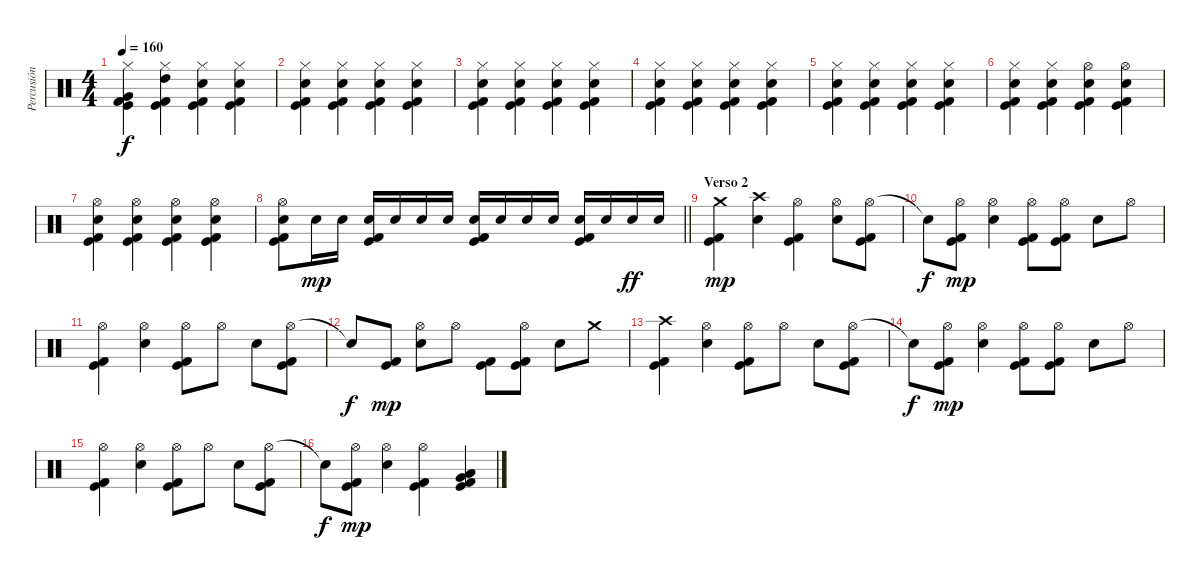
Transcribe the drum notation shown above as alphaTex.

\track ("Percusión" "Percusión") {instrument percussion}
\staff {score}
\articulation defaults
\ts (4 4)
\tempo 160
\clef neutral
\ks c
("Hi-Hat (closed)" "Very Low Tom (hit)" "Kick (hit)" "Kick (hit) 2").4{dy f} ("Hi-Hat (closed)" "High Tom (hit)" "Kick (hit)" "Kick (hit) 2").4 ("Hi-Hat (closed)" "Electric Snare (hit)" "Kick (hit)" "Kick (hit) 2").4 ("Hi-Hat (closed)" "Electric Snare (hit)" "Kick (hit)" "Kick (hit) 2").4 |
("Hi-Hat (closed)" "Electric Snare (hit)" "Kick (hit)" "Kick (hit) 2").4 ("Hi-Hat (closed)" "Electric Snare (hit)" "Kick (hit)" "Kick (hit) 2").4 ("Hi-Hat (closed)" "Electric Snare (hit)" "Kick (hit)" "Kick (hit) 2").4 ("Hi-Hat (closed)" "Electric Snare (hit)" "Kick (hit)" "Kick (hit) 2").4 |
("Hi-Hat (closed)" "Electric Snare (hit)" "Kick (hit)" "Kick (hit) 2").4 ("Hi-Hat (closed)" "Electric Snare (hit)" "Kick (hit)" "Kick (hit) 2").4 ("Hi-Hat (closed)" "Electric Snare (hit)" "Kick (hit)" "Kick (hit) 2").4 ("Hi-Hat (closed)" "Electric Snare (hit)" "Kick (hit)" "Kick (hit) 2").4 |
("Hi-Hat (closed)" "Electric Snare (hit)" "Kick (hit)" "Kick (hit) 2").4 ("Hi-Hat (closed)" "Electric Snare (hit)" "Kick (hit)" "Kick (hit) 2").4 ("Hi-Hat (closed)" "Electric Snare (hit)" "Kick (hit)" "Kick (hit) 2").4 ("Hi-Hat (closed)" "Electric Snare (hit)" "Kick (hit)" "Kick (hit) 2").4 |
("Hi-Hat (closed)" "Electric Snare (hit)" "Kick (hit)" "Kick (hit) 2").4 ("Hi-Hat (closed)" "Electric Snare (hit)" "Kick (hit)" "Kick (hit) 2").4 ("Hi-Hat (closed)" "Electric Snare (hit)" "Kick (hit)" "Kick (hit) 2").4 ("Hi-Hat (closed)" "Electric Snare (hit)" "Kick (hit)" "Kick (hit) 2").4 |
("Hi-Hat (closed)" "Electric Snare (hit)" "Kick (hit)" "Kick (hit) 2").4 ("Hi-Hat (closed)" "Electric Snare (hit)" "Kick (hit)" "Kick (hit) 2").4 ("Hi-Hat (open)" "Electric Snare (hit)" "Kick (hit)" "Kick (hit) 2").4 ("Hi-Hat (open)" "Electric Snare (hit)" "Kick (hit)" "Kick (hit) 2").4 |
("Hi-Hat (open)" "Electric Snare (hit)" "Kick (hit)" "Kick (hit) 2").4 ("Hi-Hat (open)" "Electric Snare (hit)" "Kick (hit)" "Kick (hit) 2").4 ("Hi-Hat (open)" "Electric Snare (hit)" "Kick (hit)" "Kick (hit) 2").4 ("Hi-Hat (open)" "Electric Snare (hit)" "Kick (hit)" "Kick (hit) 2").4 |
\barLineRight lightlight
("Hi-Hat (open)" "Electric Snare (hit)" "Kick (hit)" "Kick (hit) 2").8 "Electric Snare (hit)".16{dy mp} "Electric Snare (hit)".16 ("Electric Snare (hit)" "Kick (hit)" "Kick (hit) 2").16 "Electric Snare (hit)".16 "Electric Snare (hit)".16 "Electric Snare (hit)".16 ("Electric Snare (hit)" "Kick (hit)" "Kick (hit) 2").16 "Electric Snare (hit)".16 "Electric Snare (hit)".16 "Electric Snare (hit)".16 ("Electric Snare (hit)" "Kick (hit)" "Kick (hit) 2").16 "Electric Snare (hit)".16 "Electric Snare (hit)".16{dy ff} "Electric Snare (hit)".16 |
\section ("" "Verso 2")
("Crash medium (hit)" "Kick (hit)" "Kick (hit) 2").4{dy mp} ("Crash high (hit)" "Electric Snare (hit)").4 ("Hi-Hat (open)" "Kick (hit)" "Kick (hit) 2").4 ("Hi-Hat (open)" "Electric Snare (hit)").8 ("Hi-Hat (open)" "Kick (hit)" "Kick (hit) 2").8 |
"Snare (hit)"{t}.8{dy f} ("Hi-Hat (open)" "Kick (hit)" "Kick (hit) 2").8{dy mp} ("Hi-Hat (open)" "Electric Snare (hit)").4 ("Hi-Hat (open)" "Kick (hit)" "Kick (hit) 2").8 ("Hi-Hat (open)" "Kick (hit)" "Kick (hit) 2").8 "Electric Snare (hit)".8 "Hi-Hat (open)".8 |
("Hi-Hat (open)" "Kick (hit)" "Kick (hit) 2").4 ("Hi-Hat (open)" "Electric Snare (hit)").4 ("Hi-Hat (open)" "Kick (hit)" "Kick (hit) 2").8 "Hi-Hat (open)".8 "Electric Snare (hit)".8 ("Hi-Hat (open)" "Kick (hit)" "Kick (hit) 2").8 |
"Snare (hit)"{t}.8{dy f} ("Kick (hit)" "Kick (hit) 2").8{dy mp} ("Hi-Hat (open)" "Electric Snare (hit)").8 "Hi-Hat (open)".8 ("Kick (hit)" "Kick (hit) 2").8 ("Hi-Hat (open)" "Kick (hit)" "Kick (hit) 2").8 "Electric Snare (hit)".8 "Crash medium (hit)".8 |
("Crash high (hit)" "Kick (hit)" "Kick (hit) 2").4 ("Hi-Hat (open)" "Electric Snare (hit)").4 ("Hi-Hat (open)" "Kick (hit)" "Kick (hit) 2").8 "Hi-Hat (open)".8 "Electric Snare (hit)".8 ("Hi-Hat (open)" "Kick (hit)" "Kick (hit) 2").8 |
"Snare (hit)"{t}.8{dy f} ("Hi-Hat (open)" "Kick (hit)" "Kick (hit) 2").8{dy mp} ("Hi-Hat (open)" "Electric Snare (hit)").4 ("Hi-Hat (open)" "Kick (hit)" "Kick (hit) 2").8 ("Hi-Hat (open)" "Kick (hit)" "Kick (hit) 2").8 "Electric Snare (hit)".8 "Hi-Hat (open)".8 |
("Hi-Hat (open)" "Kick (hit)" "Kick (hit) 2").4 ("Hi-Hat (open)" "Electric Snare (hit)").4 ("Hi-Hat (open)" "Kick (hit)" "Kick (hit) 2").8 "Hi-Hat (open)".8 "Electric Snare (hit)".8 ("Hi-Hat (open)" "Kick (hit)" "Kick (hit) 2").8 |
"Snare (hit)"{t}.8{dy f} ("Hi-Hat (open)" "Kick (hit)" "Kick (hit) 2").8{dy mp} ("Hi-Hat (open)" "Electric Snare (hit)").4 ("Hi-Hat (open)" "Kick (hit)" "Kick (hit) 2").4 ("Very Low Tom (hit)" "Low Tom (hit)" "Kick (hit)" "Kick (hit) 2").4
